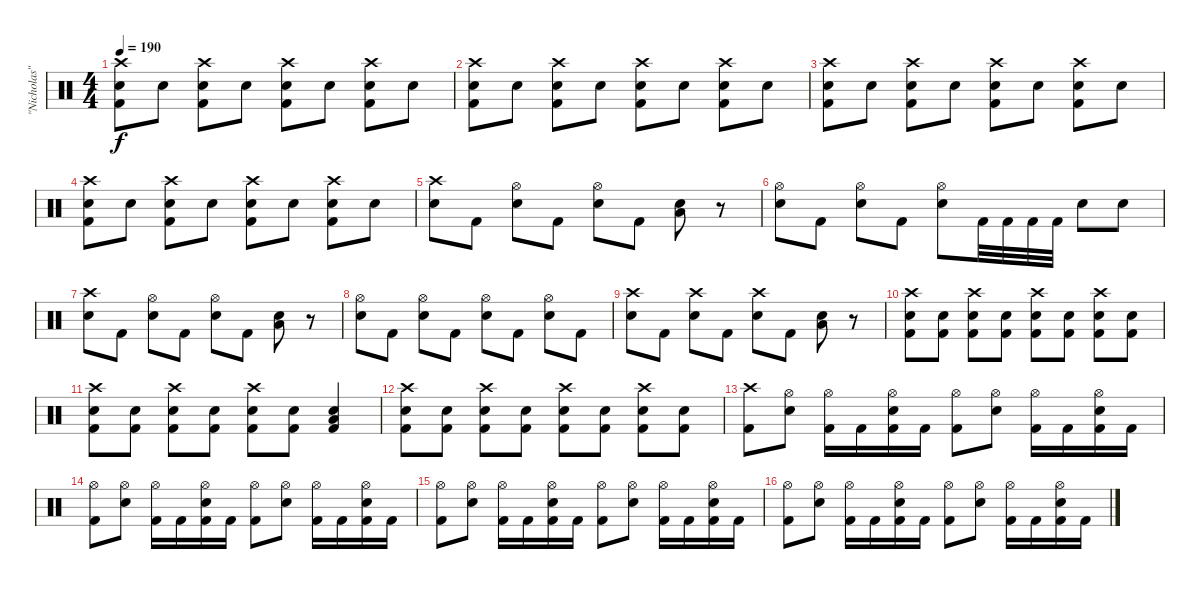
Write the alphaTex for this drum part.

\track ("\"Nicholas\"" "\"Nicholas\"") {instrument percussion}
\staff {score}
\articulation defaults
\ts (4 4)
\tempo 190
\clef neutral
\ks c
("Kick (hit) 2" "Snare (hit) 2" "Crash high (hit)").8{dy f} "Snare (hit) 2".8 ("Kick (hit) 2" "Snare (hit) 2" "Crash high (hit)").8 "Snare (hit) 2".8 ("Kick (hit) 2" "Snare (hit) 2" "Crash high (hit)").8 "Snare (hit) 2".8 ("Kick (hit) 2" "Snare (hit) 2" "Crash high (hit)").8 "Snare (hit) 2".8 |
("Kick (hit) 2" "Snare (hit) 2" "Crash high (hit)").8 "Snare (hit) 2".8 ("Kick (hit) 2" "Snare (hit) 2" "Crash high (hit)").8 "Snare (hit) 2".8 ("Kick (hit) 2" "Snare (hit) 2" "Crash high (hit)").8 "Snare (hit) 2".8 ("Kick (hit) 2" "Snare (hit) 2" "Crash high (hit)").8 "Snare (hit) 2".8 |
("Kick (hit) 2" "Snare (hit) 2" "Crash high (hit)").8 "Snare (hit) 2".8 ("Kick (hit) 2" "Snare (hit) 2" "Crash high (hit)").8 "Snare (hit) 2".8 ("Kick (hit) 2" "Snare (hit) 2" "Crash high (hit)").8 "Snare (hit) 2".8 ("Kick (hit) 2" "Snare (hit) 2" "Crash high (hit)").8 "Snare (hit) 2".8 |
("Kick (hit) 2" "Snare (hit) 2" "Crash high (hit)").8 "Snare (hit) 2".8 ("Kick (hit) 2" "Snare (hit) 2" "Crash high (hit)").8 "Snare (hit) 2".8 ("Kick (hit) 2" "Snare (hit) 2" "Crash high (hit)").8 "Snare (hit) 2".8 ("Kick (hit) 2" "Snare (hit) 2" "Crash high (hit)").8 "Snare (hit) 2".8 |
("Snare (hit) 2" "Crash high (hit)").8 "Kick (hit) 2".8 ("Snare (hit) 2" "Hi-Hat (open)").8 "Kick (hit) 2".8 ("Snare (hit) 2" "Hi-Hat (open)").8 "Kick (hit) 2".8 ("Snare (hit) 2" "Low Tom (hit)").8 r.8 |
("Snare (hit) 2" "Hi-Hat (open)").8 "Kick (hit) 2".8 ("Snare (hit) 2" "Hi-Hat (open)").8 "Kick (hit) 2".8 ("Snare (hit) 2" "Hi-Hat (open)").8 "Kick (hit) 2".32 "Kick (hit) 2".32 "Kick (hit) 2".32 "Kick (hit) 2".32 "Snare (hit) 2".8 "Snare (hit) 2".8 |
("Snare (hit) 2" "Crash high (hit)").8 "Kick (hit) 2".8 ("Snare (hit) 2" "Hi-Hat (open)").8 "Kick (hit) 2".8 ("Snare (hit) 2" "Hi-Hat (open)").8 "Kick (hit) 2".8 ("Snare (hit) 2" "Low Tom (hit)").8 r.8 |
("Snare (hit) 2" "Hi-Hat (open)").8 "Kick (hit) 2".8 ("Snare (hit) 2" "Hi-Hat (open)").8 "Kick (hit) 2".8 ("Snare (hit) 2" "Hi-Hat (open)").8 "Kick (hit) 2".8 ("Snare (hit) 2" "Hi-Hat (open)").8 "Kick (hit) 2".8 |
("Snare (hit) 2" "Crash high (hit)").8 "Kick (hit) 2".8 ("Snare (hit) 2" "Crash high (hit)").8 "Kick (hit) 2".8 ("Snare (hit) 2" "Crash high (hit)").8 "Kick (hit) 2".8 ("Snare (hit) 2" "Low Tom (hit)").8 r.8 |
("Kick (hit) 2" "Snare (hit) 2" "Crash high (hit)").8 ("Kick (hit) 2" "Snare (hit) 2").8 ("Kick (hit) 2" "Snare (hit) 2" "Crash high (hit)").8 ("Kick (hit) 2" "Snare (hit) 2").8 ("Kick (hit) 2" "Snare (hit) 2" "Crash high (hit)").8 ("Kick (hit) 2" "Snare (hit) 2").8 ("Kick (hit) 2" "Snare (hit) 2" "Crash high (hit)").8 ("Kick (hit) 2" "Snare (hit) 2").8 |
("Kick (hit) 2" "Snare (hit) 2" "Crash high (hit)").8 ("Kick (hit) 2" "Snare (hit) 2").8 ("Kick (hit) 2" "Snare (hit) 2" "Crash high (hit)").8 ("Kick (hit) 2" "Snare (hit) 2").8 ("Kick (hit) 2" "Snare (hit) 2" "Crash high (hit)").8 ("Kick (hit) 2" "Snare (hit) 2").8 ("Kick (hit) 2" "Snare (hit) 2" "Low Tom (hit)").4 |
("Kick (hit) 2" "Snare (hit) 2" "Crash high (hit)").8 ("Kick (hit) 2" "Snare (hit) 2").8 ("Kick (hit) 2" "Snare (hit) 2" "Crash high (hit)").8 ("Kick (hit) 2" "Snare (hit) 2").8 ("Kick (hit) 2" "Snare (hit) 2" "Crash high (hit)").8 ("Kick (hit) 2" "Snare (hit) 2").8 ("Kick (hit) 2" "Snare (hit) 2" "Crash high (hit)").8 ("Kick (hit) 2" "Snare (hit) 2").8 |
("Kick (hit) 2" "Crash high (hit)").8 ("Snare (hit) 2" "Hi-Hat (open)").8 ("Kick (hit) 2" "Hi-Hat (open)").16 "Kick (hit) 2".16 ("Kick (hit) 2" "Snare (hit) 2" "Hi-Hat (open)").16 "Kick (hit) 2".16 ("Kick (hit) 2" "Hi-Hat (open)").8 ("Snare (hit) 2" "Hi-Hat (open)").8 ("Kick (hit) 2" "Hi-Hat (open)").16 "Kick (hit) 2".16 ("Kick (hit) 2" "Snare (hit) 2" "Hi-Hat (open)").16 "Kick (hit) 2".16 |
("Kick (hit) 2" "Hi-Hat (open)").8 ("Snare (hit) 2" "Hi-Hat (open)").8 ("Kick (hit) 2" "Hi-Hat (open)").16 "Kick (hit) 2".16 ("Kick (hit) 2" "Snare (hit) 2" "Hi-Hat (open)").16 "Kick (hit) 2".16 ("Kick (hit) 2" "Hi-Hat (open)").8 ("Snare (hit) 2" "Hi-Hat (open)").8 ("Kick (hit) 2" "Hi-Hat (open)").16 "Kick (hit) 2".16 ("Kick (hit) 2" "Snare (hit) 2" "Hi-Hat (open)").16 "Kick (hit) 2".16 |
("Kick (hit) 2" "Hi-Hat (open)").8 ("Snare (hit) 2" "Hi-Hat (open)").8 ("Kick (hit) 2" "Hi-Hat (open)").16 "Kick (hit) 2".16 ("Kick (hit) 2" "Snare (hit) 2" "Hi-Hat (open)").16 "Kick (hit) 2".16 ("Kick (hit) 2" "Hi-Hat (open)").8 ("Snare (hit) 2" "Hi-Hat (open)").8 ("Kick (hit) 2" "Hi-Hat (open)").16 "Kick (hit) 2".16 ("Kick (hit) 2" "Snare (hit) 2" "Hi-Hat (open)").16 "Kick (hit) 2".16 |
("Kick (hit) 2" "Hi-Hat (open)").8 ("Snare (hit) 2" "Hi-Hat (open)").8 ("Kick (hit) 2" "Hi-Hat (open)").16 "Kick (hit) 2".16 ("Kick (hit) 2" "Snare (hit) 2" "Hi-Hat (open)").16 "Kick (hit) 2".16 ("Kick (hit) 2" "Hi-Hat (open)").8 ("Snare (hit) 2" "Hi-Hat (open)").8 ("Kick (hit) 2" "Hi-Hat (open)").16 "Kick (hit) 2".16 ("Kick (hit) 2" "Snare (hit) 2" "Hi-Hat (open)").16 "Kick (hit) 2".16
